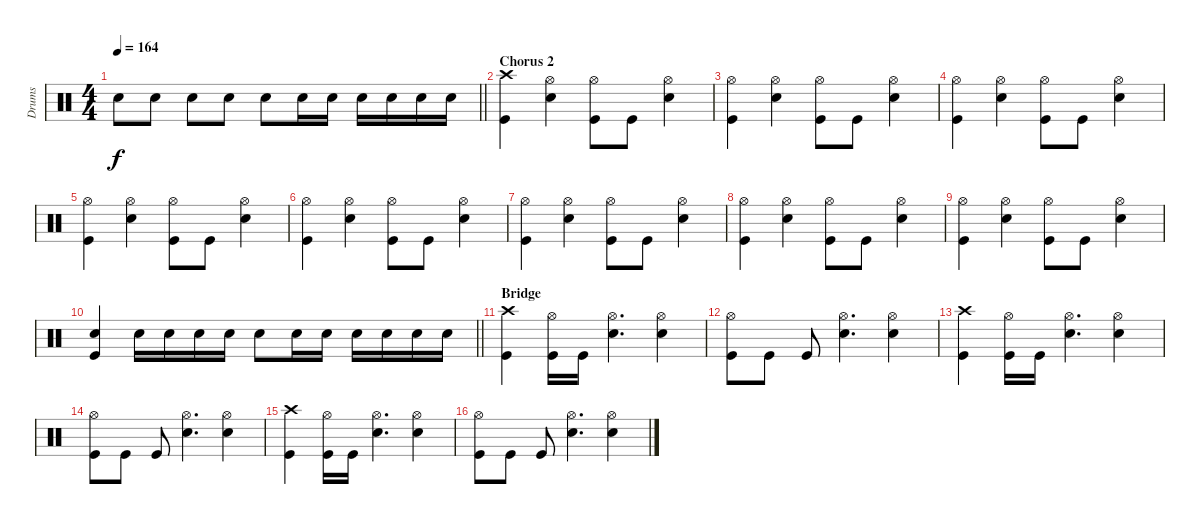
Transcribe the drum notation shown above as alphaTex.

\track ("Drums" "Drums") {instrument percussion}
\staff {score}
\articulation defaults
\ts (4 4)
\tempo 164
\clef neutral
\barLineRight lightlight
\ks c "Snare (hit) 2".8{dy f} "Snare (hit) 2".8 "Snare (hit) 2".8 "Snare (hit) 2".8 "Snare (hit) 2".8 "Snare (hit) 2".16 "Snare (hit) 2".16 "Snare (hit) 2".16 "Snare (hit) 2".16 "Snare (hit) 2".16 "Snare (hit) 2".16
|
\section ("" "Chorus 2")
("Crash high (hit)" "Kick (hit)").4 ("Hi-Hat (open)" "Snare (hit) 2").4 ("Kick (hit)" "Hi-Hat (open)").8 "Kick (hit)".8 ("Hi-Hat (open)" "Snare (hit) 2").4 |
("Hi-Hat (open)" "Kick (hit)").4 ("Hi-Hat (open)" "Snare (hit) 2").4 ("Kick (hit)" "Hi-Hat (open)").8 "Kick (hit)".8 ("Hi-Hat (open)" "Snare (hit) 2").4 |
("Hi-Hat (open)" "Kick (hit)").4 ("Hi-Hat (open)" "Snare (hit) 2").4 ("Kick (hit)" "Hi-Hat (open)").8 "Kick (hit)".8 ("Hi-Hat (open)" "Snare (hit) 2").4 |
("Hi-Hat (open)" "Kick (hit)").4 ("Hi-Hat (open)" "Snare (hit) 2").4 ("Kick (hit)" "Hi-Hat (open)").8 "Kick (hit)".8 ("Hi-Hat (open)" "Snare (hit) 2").4 |
("Hi-Hat (open)" "Kick (hit)").4 ("Hi-Hat (open)" "Snare (hit) 2").4 ("Kick (hit)" "Hi-Hat (open)").8 "Kick (hit)".8 ("Hi-Hat (open)" "Snare (hit) 2").4 |
("Hi-Hat (open)" "Kick (hit)").4 ("Hi-Hat (open)" "Snare (hit) 2").4 ("Kick (hit)" "Hi-Hat (open)").8 "Kick (hit)".8 ("Hi-Hat (open)" "Snare (hit) 2").4 |
("Hi-Hat (open)" "Kick (hit)").4 ("Hi-Hat (open)" "Snare (hit) 2").4 ("Kick (hit)" "Hi-Hat (open)").8 "Kick (hit)".8 ("Hi-Hat (open)" "Snare (hit) 2").4 |
("Hi-Hat (open)" "Kick (hit)").4 ("Hi-Hat (open)" "Snare (hit) 2").4 ("Kick (hit)" "Hi-Hat (open)").8 "Kick (hit)".8 ("Hi-Hat (open)" "Snare (hit) 2").4 |
\barLineRight lightlight
("Snare (hit) 2" "Kick (hit)").4 "Snare (hit) 2".16 "Snare (hit) 2".16 "Snare (hit) 2".16 "Snare (hit) 2".16 "Snare (hit) 2".8 "Snare (hit) 2".16 "Snare (hit) 2".16 "Snare (hit) 2".16 "Snare (hit) 2".16 "Snare (hit) 2".16 "Snare (hit) 2".16 |
\section ("" "Bridge")
("Crash high (hit)" "Kick (hit)").4 ("Kick (hit)" "Hi-Hat (open)").16 "Kick (hit)".16 ("Snare (hit) 2" "Hi-Hat (open)").4{d} ("Snare (hit) 2" "Hi-Hat (open)").4 |
("Hi-Hat (open)" "Kick (hit)").8 "Kick (hit)".8 "Kick (hit)".8 ("Snare (hit) 2" "Hi-Hat (open)").4{d} ("Snare (hit) 2" "Hi-Hat (open)").4 |
("Crash high (hit)" "Kick (hit)").4 ("Kick (hit)" "Hi-Hat (open)").16 "Kick (hit)".16 ("Snare (hit) 2" "Hi-Hat (open)").4{d} ("Snare (hit) 2" "Hi-Hat (open)").4 |
("Hi-Hat (open)" "Kick (hit)").8 "Kick (hit)".8 "Kick (hit)".8 ("Snare (hit) 2" "Hi-Hat (open)").4{d} ("Snare (hit) 2" "Hi-Hat (open)").4 |
("Crash high (hit)" "Kick (hit)").4 ("Kick (hit)" "Hi-Hat (open)").16 "Kick (hit)".16 ("Snare (hit) 2" "Hi-Hat (open)").4{d} ("Snare (hit) 2" "Hi-Hat (open)").4 |
("Hi-Hat (open)" "Kick (hit)").8 "Kick (hit)".8 "Kick (hit)".8 ("Snare (hit) 2" "Hi-Hat (open)").4{d} ("Snare (hit) 2" "Hi-Hat (open)").4
